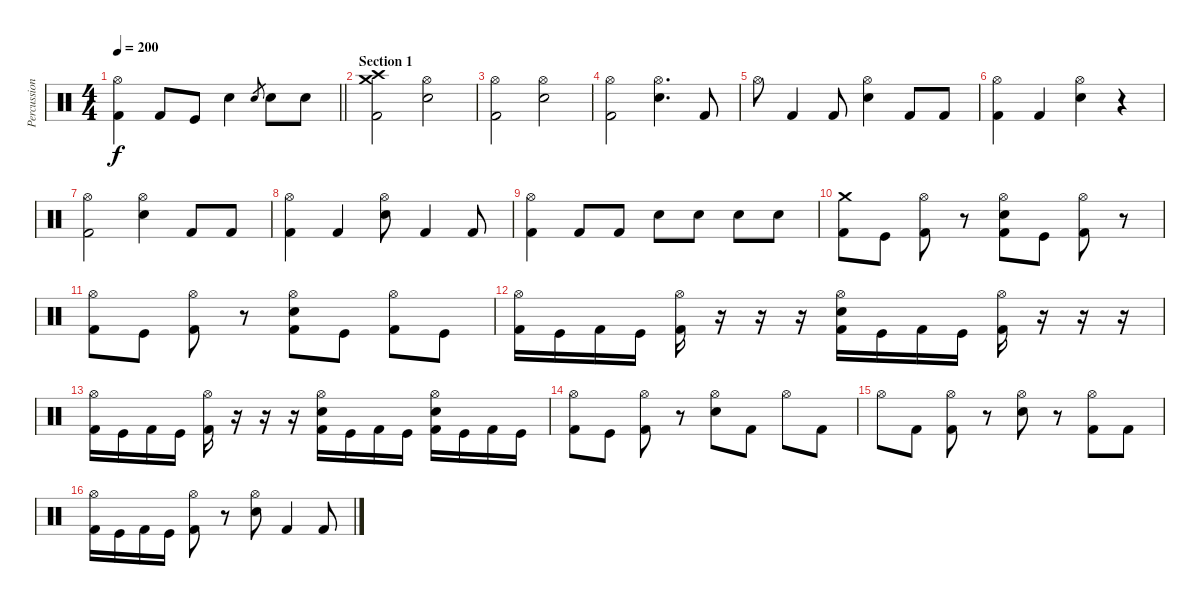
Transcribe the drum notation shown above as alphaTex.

\track ("Percussion" "Percussion") {instrument percussion}
\staff {score}
\articulation defaults
\ts (4 4)
\tempo 200
\clef neutral
\barLineRight lightlight
\ks c
("Hi-Hat (open)" "Kick (hit) 2").4{dy f} "Kick (hit) 2".8 "Kick (hit)".8 "Snare (hit) 2".4 "Snare (hit) 2".8{gr} "Snare (hit) 2".8 "Snare (hit) 2".8 |
\section ("" "Section 1")
("Crash medium (hit)" "Crash high (hit)" "Kick (hit) 2").2 ("Hi-Hat (open)" "Snare (hit) 2").2 |
("Hi-Hat (open)" "Kick (hit) 2").2 ("Hi-Hat (open)" "Snare (hit) 2").2 |
("Hi-Hat (open)" "Kick (hit) 2").2 ("Hi-Hat (open)" "Snare (hit) 2").4{d} "Kick (hit) 2".8 |
"Hi-Hat (open)".8 "Kick (hit) 2".4 "Kick (hit) 2".8 ("Hi-Hat (open)" "Snare (hit) 2").4 "Kick (hit) 2".8 "Kick (hit) 2".8 |
("Hi-Hat (open)" "Kick (hit) 2").4 "Kick (hit) 2".4 ("Hi-Hat (open)" "Snare (hit) 2").4 r.4 |
("Hi-Hat (open)" "Kick (hit) 2").2 ("Hi-Hat (open)" "Snare (hit) 2").4 "Kick (hit) 2".8 "Kick (hit) 2".8 |
("Hi-Hat (open)" "Kick (hit) 2").4 "Kick (hit) 2".4 ("Hi-Hat (open)" "Snare (hit) 2").8 "Kick (hit) 2".4 "Kick (hit) 2".8 |
("Hi-Hat (open)" "Kick (hit) 2").4 "Kick (hit) 2".8 "Kick (hit) 2".8 "Snare (hit) 2".8 "Snare (hit) 2".8 "Snare (hit) 2".8 "Snare (hit) 2".8 |
("Crash medium (hit)" "Kick (hit) 2").8 "Kick (hit)".8 ("Hi-Hat (open)" "Kick (hit) 2").8 r.8 ("Hi-Hat (open)" "Snare (hit) 2" "Kick (hit) 2").8 "Kick (hit)".8 ("Hi-Hat (open)" "Kick (hit) 2").8 r.8 |
("Hi-Hat (open)" "Kick (hit) 2").8 "Kick (hit)".8 ("Hi-Hat (open)" "Kick (hit) 2").8 r.8 ("Hi-Hat (open)" "Snare (hit) 2" "Kick (hit) 2").8 "Kick (hit)".8 ("Hi-Hat (open)" "Kick (hit) 2").8 "Kick (hit)".8 |
("Hi-Hat (open)" "Kick (hit) 2").16 "Kick (hit)".16 "Kick (hit) 2".16 "Kick (hit)".16 ("Hi-Hat (open)" "Kick (hit) 2").16 r.16 r.16 r.16 ("Hi-Hat (open)" "Snare (hit) 2" "Kick (hit) 2").16 "Kick (hit)".16 "Kick (hit) 2".16 "Kick (hit)".16 ("Hi-Hat (open)" "Kick (hit) 2").16 r.16 r.16 r.16 |
("Hi-Hat (open)" "Kick (hit) 2").16 "Kick (hit)".16 "Kick (hit) 2".16 "Kick (hit)".16 ("Hi-Hat (open)" "Kick (hit) 2").16 r.16 r.16 r.16 ("Hi-Hat (open)" "Snare (hit) 2" "Kick (hit) 2").16 "Kick (hit)".16 "Kick (hit) 2".16 "Kick (hit)".16 ("Hi-Hat (open)" "Snare (hit) 2" "Kick (hit) 2").16 "Kick (hit)".16 "Kick (hit) 2".16 "Kick (hit)".16 |
("Hi-Hat (open)" "Kick (hit) 2").8 "Kick (hit)".8 ("Hi-Hat (open)" "Kick (hit) 2").8 r.8 ("Hi-Hat (open)" "Snare (hit) 2").8 "Kick (hit) 2".8 "Hi-Hat (open)".8 "Kick (hit) 2".8 |
"Hi-Hat (open)".8 "Kick (hit) 2".8 ("Hi-Hat (open)" "Kick (hit) 2").8 r.8 ("Hi-Hat (open)" "Snare (hit) 2").8 r.8 ("Hi-Hat (open)" "Kick (hit) 2").8 "Kick (hit) 2".8 |
("Hi-Hat (open)" "Kick (hit) 2").16 "Kick (hit)".16 "Kick (hit) 2".16 "Kick (hit)".16 ("Hi-Hat (open)" "Kick (hit) 2").8 r.8 ("Hi-Hat (open)" "Snare (hit) 2").8 "Kick (hit) 2".4 "Kick (hit) 2".8
